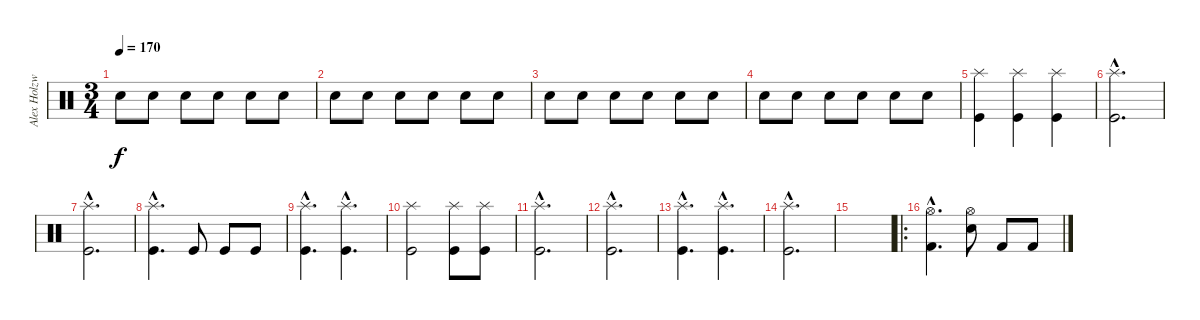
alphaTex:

\track ("Alex Holzwarth - Drums" "Alex Holzw") {instrument percussion}
\staff {score}
\articulation defaults
\ts (3 4)
\tempo 170
\clef neutral
\ks c "Snare (hit) 2".8{dy f volume 16} "Snare (hit) 2".8 "Snare (hit) 2".8 "Snare (hit) 2".8 "Snare (hit) 2".8 "Snare (hit) 2".8
|
"Snare (hit) 2".8 "Snare (hit) 2".8 "Snare (hit) 2".8 "Snare (hit) 2".8 "Snare (hit) 2".8 "Snare (hit) 2".8 |
"Snare (hit) 2".8 "Snare (hit) 2".8 "Snare (hit) 2".8 "Snare (hit) 2".8 "Snare (hit) 2".8 "Snare (hit) 2".8 |
"Snare (hit) 2".8 "Snare (hit) 2".8 "Snare (hit) 2".8 "Snare (hit) 2".8 "Snare (hit) 2".8 "Snare (hit) 2".8 |
("Splash (hit)" "Kick (hit)").4 ("Splash (hit)" "Kick (hit)").4 ("Splash (hit)" "Kick (hit)").4 |
("Splash (hit)"{hac} "Kick (hit)"{hac}).2{d} |
("Splash (hit)"{hac} "Kick (hit)"{hac}).2{d} |
("Splash (hit)"{hac} "Kick (hit)"{hac}).4{d} "Kick (hit)".8 "Kick (hit)".8 "Kick (hit)".8 |
("Splash (hit)"{hac} "Kick (hit)"{hac}).4{d} ("Splash (hit)"{hac} "Kick (hit)"{hac}).4{d} |
("Splash (hit)" "Kick (hit)").2 ("Splash (hit)" "Kick (hit)").8 ("Splash (hit)" "Kick (hit)").8 |
("Splash (hit)"{hac} "Kick (hit)"{hac}).2{d} |
("Splash (hit)"{hac} "Kick (hit)"{hac}).2{d} |
("Splash (hit)"{hac} "Kick (hit)"{hac}).4{d} ("Splash (hit)"{hac} "Kick (hit)"{hac}).4{d} |
("Splash (hit)"{hac} "Kick (hit)"{hac}).2{d} |
|
\ro
("Hi-Hat (open)"{hac} "Kick (hit) 2"{hac}).4{d} ("Hi-Hat (open)" "Snare (hit) 2").8 "Kick (hit) 2".8 "Kick (hit) 2".8
